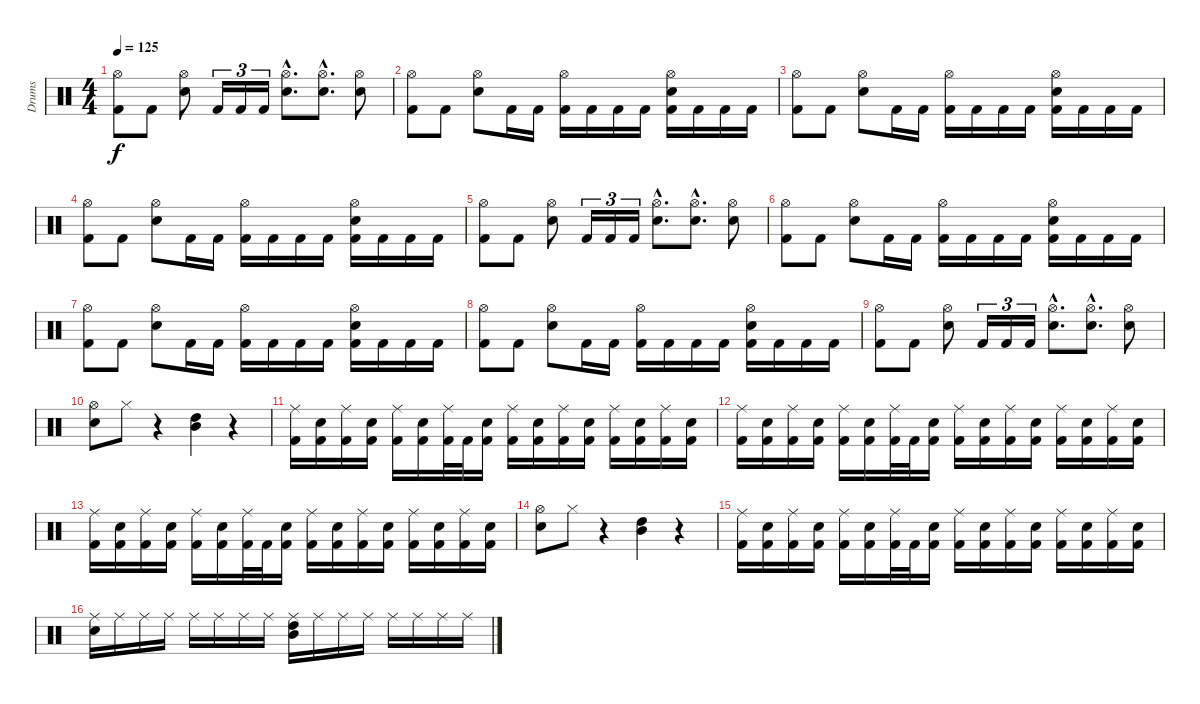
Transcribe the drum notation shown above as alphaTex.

\track ("Drums" "Drums") {instrument percussion}
\staff {score}
\articulation defaults
\ts (4 4)
\tempo 125
\clef neutral
\ks c
("Hi-Hat (open)" "Kick (hit) 2").8{dy f} "Kick (hit) 2".8 ("Hi-Hat (open)" "Electric Snare (hit)").8 "Kick (hit) 2".16{tu (3 2)} "Kick (hit) 2".16{tu (3 2)} "Kick (hit) 2".16{tu (3 2)} ("Hi-Hat (open)"{hac} "Electric Snare (hit)"{hac}).8{d} ("Hi-Hat (open)"{hac} "Electric Snare (hit)"{hac}).8{d} ("Hi-Hat (open)" "Electric Snare (hit)").8 |
("Hi-Hat (open)" "Kick (hit) 2").8 "Kick (hit) 2".8 ("Hi-Hat (open)" "Electric Snare (hit)").8 "Kick (hit) 2".16 "Kick (hit) 2".16 ("Hi-Hat (open)" "Kick (hit) 2").16 "Kick (hit) 2".16 "Kick (hit) 2".16 "Kick (hit) 2".16 ("Hi-Hat (open)" "Electric Snare (hit)" "Kick (hit) 2").16 "Kick (hit) 2".16 "Kick (hit) 2".16 "Kick (hit) 2".16 |
("Hi-Hat (open)" "Kick (hit) 2").8 "Kick (hit) 2".8 ("Hi-Hat (open)" "Electric Snare (hit)").8 "Kick (hit) 2".16 "Kick (hit) 2".16 ("Hi-Hat (open)" "Kick (hit) 2").16 "Kick (hit) 2".16 "Kick (hit) 2".16 "Kick (hit) 2".16 ("Hi-Hat (open)" "Electric Snare (hit)" "Kick (hit) 2").16 "Kick (hit) 2".16 "Kick (hit) 2".16 "Kick (hit) 2".16 |
("Hi-Hat (open)" "Kick (hit) 2").8 "Kick (hit) 2".8 ("Hi-Hat (open)" "Electric Snare (hit)").8 "Kick (hit) 2".16 "Kick (hit) 2".16 ("Hi-Hat (open)" "Kick (hit) 2").16 "Kick (hit) 2".16 "Kick (hit) 2".16 "Kick (hit) 2".16 ("Hi-Hat (open)" "Electric Snare (hit)" "Kick (hit) 2").16 "Kick (hit) 2".16 "Kick (hit) 2".16 "Kick (hit) 2".16 |
("Hi-Hat (open)" "Kick (hit) 2").8 "Kick (hit) 2".8 ("Hi-Hat (open)" "Electric Snare (hit)").8 "Kick (hit) 2".16{tu (3 2)} "Kick (hit) 2".16{tu (3 2)} "Kick (hit) 2".16{tu (3 2)} ("Hi-Hat (open)"{hac} "Electric Snare (hit)"{hac}).8{d} ("Hi-Hat (open)"{hac} "Electric Snare (hit)"{hac}).8{d} ("Hi-Hat (open)" "Electric Snare (hit)").8 |
("Hi-Hat (open)" "Kick (hit) 2").8 "Kick (hit) 2".8 ("Hi-Hat (open)" "Electric Snare (hit)").8 "Kick (hit) 2".16 "Kick (hit) 2".16 ("Hi-Hat (open)" "Kick (hit) 2").16 "Kick (hit) 2".16 "Kick (hit) 2".16 "Kick (hit) 2".16 ("Hi-Hat (open)" "Electric Snare (hit)" "Kick (hit) 2").16 "Kick (hit) 2".16 "Kick (hit) 2".16 "Kick (hit) 2".16 |
("Hi-Hat (open)" "Kick (hit) 2").8 "Kick (hit) 2".8 ("Hi-Hat (open)" "Electric Snare (hit)").8 "Kick (hit) 2".16 "Kick (hit) 2".16 ("Hi-Hat (open)" "Kick (hit) 2").16 "Kick (hit) 2".16 "Kick (hit) 2".16 "Kick (hit) 2".16 ("Hi-Hat (open)" "Electric Snare (hit)" "Kick (hit) 2").16 "Kick (hit) 2".16 "Kick (hit) 2".16 "Kick (hit) 2".16 |
("Hi-Hat (open)" "Kick (hit) 2").8 "Kick (hit) 2".8 ("Hi-Hat (open)" "Electric Snare (hit)").8 "Kick (hit) 2".16 "Kick (hit) 2".16 ("Hi-Hat (open)" "Kick (hit) 2").16 "Kick (hit) 2".16 "Kick (hit) 2".16 "Kick (hit) 2".16 ("Hi-Hat (open)" "Electric Snare (hit)" "Kick (hit) 2").16 "Kick (hit) 2".16 "Kick (hit) 2".16 "Kick (hit) 2".16 |
("Hi-Hat (open)" "Kick (hit) 2").8 "Kick (hit) 2".8 ("Hi-Hat (open)" "Electric Snare (hit)").8 "Kick (hit) 2".16{tu (3 2)} "Kick (hit) 2".16{tu (3 2)} "Kick (hit) 2".16{tu (3 2)} ("Hi-Hat (open)"{hac} "Electric Snare (hit)"{hac}).8{d} ("Hi-Hat (open)"{hac} "Electric Snare (hit)"{hac}).8{d} ("Hi-Hat (open)" "Electric Snare (hit)").8 |
("Hi-Hat (open)" "Electric Snare (hit)").8 "Hi-Hat (closed)".8 r.4 ("Mid Tom (hit)" "High Tom (hit)").4 r.4 |
("Ride (middle)" "Kick (hit) 2").16 ("Electric Snare (hit)" "Kick (hit) 2").16 ("Ride (middle)" "Kick (hit) 2").16 ("Electric Snare (hit)" "Kick (hit) 2").16 ("Ride (middle)" "Kick (hit) 2").16 ("Electric Snare (hit)" "Kick (hit) 2").16 ("Ride (middle)" "Kick (hit) 2").32 "Kick (hit) 2".32 ("Electric Snare (hit)" "Kick (hit) 2").16 ("Ride (middle)" "Kick (hit) 2").16 ("Electric Snare (hit)" "Kick (hit) 2").16 ("Ride (middle)" "Kick (hit) 2").16 ("Electric Snare (hit)" "Kick (hit) 2").16 ("Ride (middle)" "Kick (hit) 2").16 ("Electric Snare (hit)" "Kick (hit) 2").16 ("Ride (middle)" "Kick (hit) 2").16 ("Electric Snare (hit)" "Kick (hit) 2").16 |
("Ride (middle)" "Kick (hit) 2").16 ("Electric Snare (hit)" "Kick (hit) 2").16 ("Ride (middle)" "Kick (hit) 2").16 ("Electric Snare (hit)" "Kick (hit) 2").16 ("Ride (middle)" "Kick (hit) 2").16 ("Electric Snare (hit)" "Kick (hit) 2").16 ("Ride (middle)" "Kick (hit) 2").32 "Kick (hit) 2".32 ("Electric Snare (hit)" "Kick (hit) 2").16 ("Ride (middle)" "Kick (hit) 2").16 ("Electric Snare (hit)" "Kick (hit) 2").16 ("Ride (middle)" "Kick (hit) 2").16 ("Electric Snare (hit)" "Kick (hit) 2").16 ("Ride (middle)" "Kick (hit) 2").16 ("Electric Snare (hit)" "Kick (hit) 2").16 ("Ride (middle)" "Kick (hit) 2").16 ("Electric Snare (hit)" "Kick (hit) 2").16 |
("Ride (middle)" "Kick (hit) 2").16 ("Electric Snare (hit)" "Kick (hit) 2").16 ("Ride (middle)" "Kick (hit) 2").16 ("Electric Snare (hit)" "Kick (hit) 2").16 ("Ride (middle)" "Kick (hit) 2").16 ("Electric Snare (hit)" "Kick (hit) 2").16 ("Ride (middle)" "Kick (hit) 2").32 "Kick (hit) 2".32 ("Electric Snare (hit)" "Kick (hit) 2").16 ("Ride (middle)" "Kick (hit) 2").16 ("Electric Snare (hit)" "Kick (hit) 2").16 ("Ride (middle)" "Kick (hit) 2").16 ("Electric Snare (hit)" "Kick (hit) 2").16 ("Ride (middle)" "Kick (hit) 2").16 ("Electric Snare (hit)" "Kick (hit) 2").16 ("Ride (middle)" "Kick (hit) 2").16 ("Electric Snare (hit)" "Kick (hit) 2").16 |
("Hi-Hat (open)" "Electric Snare (hit)").8 "Hi-Hat (closed)".8 r.4 ("Mid Tom (hit)" "High Tom (hit)").4 r.4 |
("Ride (middle)" "Kick (hit) 2").16 ("Electric Snare (hit)" "Kick (hit) 2").16 ("Ride (middle)" "Kick (hit) 2").16 ("Electric Snare (hit)" "Kick (hit) 2").16 ("Ride (middle)" "Kick (hit) 2").16 ("Electric Snare (hit)" "Kick (hit) 2").16 ("Ride (middle)" "Kick (hit) 2").32 "Kick (hit) 2".32 ("Electric Snare (hit)" "Kick (hit) 2").16 ("Ride (middle)" "Kick (hit) 2").16 ("Electric Snare (hit)" "Kick (hit) 2").16 ("Ride (middle)" "Kick (hit) 2").16 ("Electric Snare (hit)" "Kick (hit) 2").16 ("Ride (middle)" "Kick (hit) 2").16 ("Electric Snare (hit)" "Kick (hit) 2").16 ("Ride (middle)" "Kick (hit) 2").16 ("Electric Snare (hit)" "Kick (hit) 2").16 |
("Ride (middle)" "Electric Snare (hit)").16 "Ride (middle)".16 "Ride (middle)".16 "Ride (middle)".16 "Ride (middle)".16 "Ride (middle)".16 "Ride (middle)".16 "Ride (middle)".16 ("Ride (middle)" "Mid Tom (hit)" "High Tom (hit)").16 "Ride (middle)".16 "Ride (middle)".16 "Ride (middle)".16 "Ride (middle)".16 "Ride (middle)".16 "Ride (middle)".16 "Ride (middle)".16
